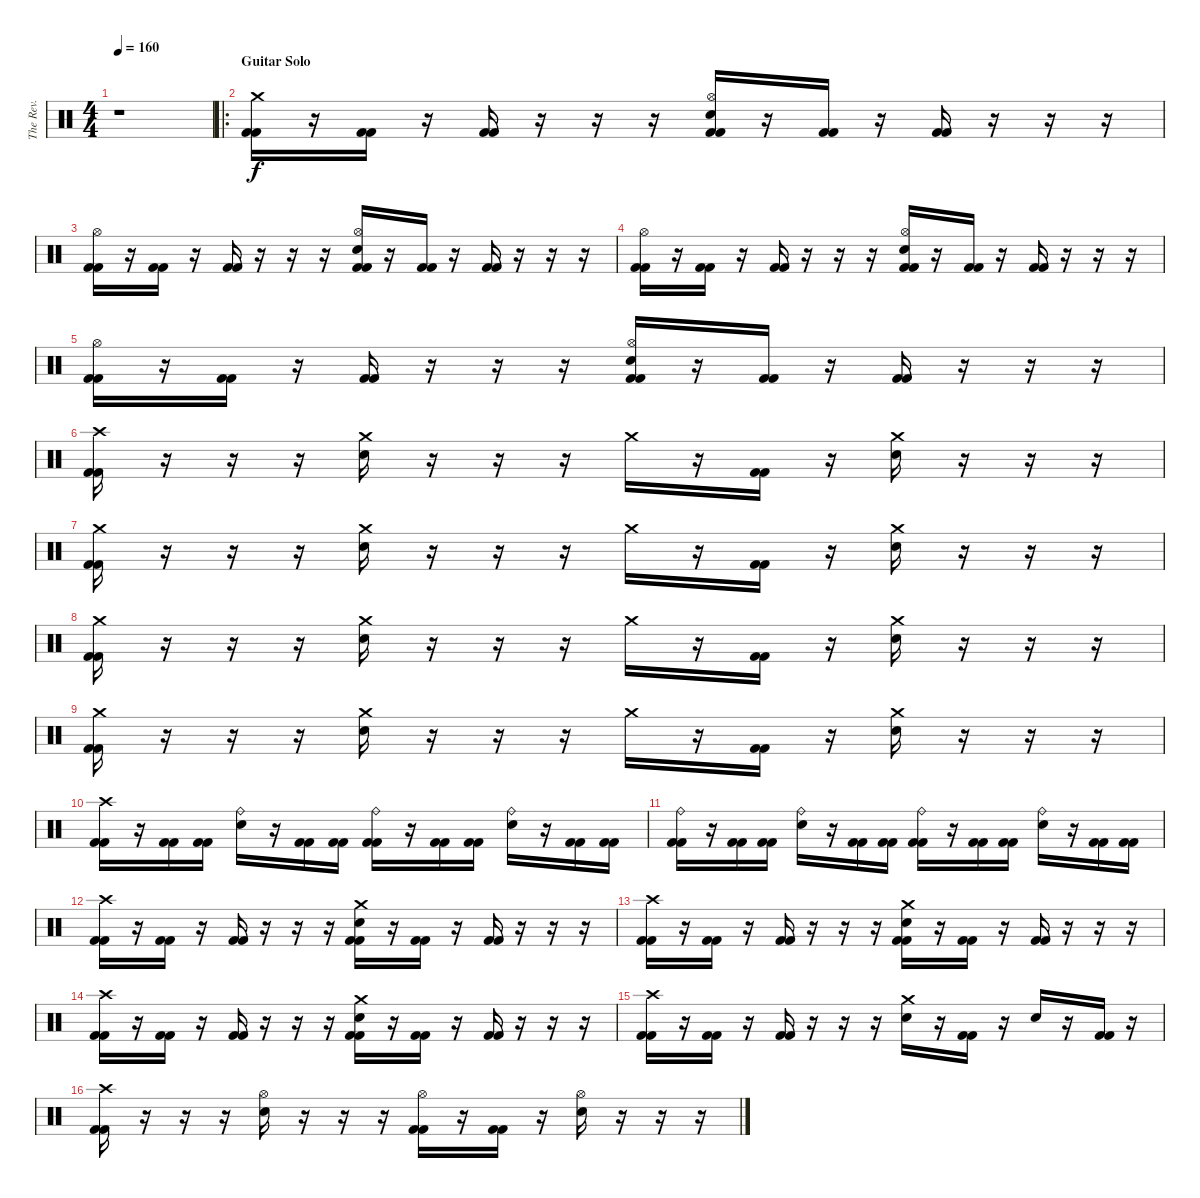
\track ("The Rev." "The Rev.") {instrument percussion}
\staff {score}
\articulation defaults
\ts (4 4)
\tempo 160
\clef neutral
\ks c
r.1{dy f} |
\ro
\section ("" "Guitar Solo")
("Crash medium (hit)" "Kick (hit) 2" "Kick (hit) 2").16 r.16 ("Kick (hit) 2" "Kick (hit) 2").16 r.16 ("Kick (hit) 2" "Kick (hit) 2").16 r.16 r.16 r.16 ("Hi-Hat (open)" "Electric Snare (hit)" "Kick (hit) 2" "Kick (hit) 2").16 r.16 ("Kick (hit) 2" "Kick (hit) 2").16 r.16 ("Kick (hit) 2" "Kick (hit) 2").16 r.16 r.16 r.16 |
("Hi-Hat (open)" "Kick (hit) 2" "Kick (hit) 2").16 r.16 ("Kick (hit) 2" "Kick (hit) 2").16 r.16 ("Kick (hit) 2" "Kick (hit) 2").16 r.16 r.16 r.16 ("Hi-Hat (open)" "Electric Snare (hit)" "Kick (hit) 2" "Kick (hit) 2").16 r.16 ("Kick (hit) 2" "Kick (hit) 2").16 r.16 ("Kick (hit) 2" "Kick (hit) 2").16 r.16 r.16 r.16 |
("Hi-Hat (open)" "Kick (hit) 2" "Kick (hit) 2").16 r.16 ("Kick (hit) 2" "Kick (hit) 2").16 r.16 ("Kick (hit) 2" "Kick (hit) 2").16 r.16 r.16 r.16 ("Hi-Hat (open)" "Electric Snare (hit)" "Kick (hit) 2" "Kick (hit) 2").16 r.16 ("Kick (hit) 2" "Kick (hit) 2").16 r.16 ("Kick (hit) 2" "Kick (hit) 2").16 r.16 r.16 r.16 |
("Hi-Hat (open)" "Kick (hit) 2" "Kick (hit) 2").16 r.16 ("Kick (hit) 2" "Kick (hit) 2").16 r.16 ("Kick (hit) 2" "Kick (hit) 2").16 r.16 r.16 r.16 ("Hi-Hat (open)" "Electric Snare (hit)" "Kick (hit) 2" "Kick (hit) 2").16 r.16 ("Kick (hit) 2" "Kick (hit) 2").16 r.16 ("Kick (hit) 2" "Kick (hit) 2").16 r.16 r.16 r.16 |
("Crash high (hit)" "Kick (hit) 2" "Kick (hit) 2").16 r.16 r.16 r.16 ("Crash medium (hit)" "Electric Snare (hit)").16 r.16 r.16 r.16 "Crash medium (hit)".16 r.16 ("Kick (hit) 2" "Kick (hit) 2").16 r.16 ("Crash medium (hit)" "Electric Snare (hit)").16 r.16 r.16 r.16 |
("Crash medium (hit)" "Kick (hit) 2" "Kick (hit) 2").16 r.16 r.16 r.16 ("Crash medium (hit)" "Electric Snare (hit)").16 r.16 r.16 r.16 "Crash medium (hit)".16 r.16 ("Kick (hit) 2" "Kick (hit) 2").16 r.16 ("Crash medium (hit)" "Electric Snare (hit)").16 r.16 r.16 r.16 |
("Crash medium (hit)" "Kick (hit) 2" "Kick (hit) 2").16 r.16 r.16 r.16 ("Crash medium (hit)" "Electric Snare (hit)").16 r.16 r.16 r.16 "Crash medium (hit)".16 r.16 ("Kick (hit) 2" "Kick (hit) 2").16 r.16 ("Crash medium (hit)" "Electric Snare (hit)").16 r.16 r.16 r.16 |
("Crash medium (hit)" "Kick (hit) 2" "Kick (hit) 2").16 r.16 r.16 r.16 ("Crash medium (hit)" "Electric Snare (hit)").16 r.16 r.16 r.16 "Crash medium (hit)".16 r.16 ("Kick (hit) 2" "Kick (hit) 2").16 r.16 ("Crash medium (hit)" "Electric Snare (hit)").16 r.16 r.16 r.16 |
("Crash high (hit)" "Kick (hit) 2" "Kick (hit) 2").16 r.16 ("Kick (hit) 2" "Kick (hit) 2").16 ("Kick (hit) 2" "Kick (hit) 2").16 ("Ride (bell)" "Electric Snare (hit)").16 r.16 ("Kick (hit) 2" "Kick (hit) 2").16 ("Kick (hit) 2" "Kick (hit) 2").16 ("Ride (bell)" "Kick (hit) 2" "Kick (hit) 2").16 r.16 ("Kick (hit) 2" "Kick (hit) 2").16 ("Kick (hit) 2" "Kick (hit) 2").16 ("Ride (bell)" "Electric Snare (hit)").16 r.16 ("Kick (hit) 2" "Kick (hit) 2").16 ("Kick (hit) 2" "Kick (hit) 2").16 |
("Ride (bell)" "Kick (hit) 2" "Kick (hit) 2").16 r.16 ("Kick (hit) 2" "Kick (hit) 2").16 ("Kick (hit) 2" "Kick (hit) 2").16 ("Ride (bell)" "Electric Snare (hit)").16 r.16 ("Kick (hit) 2" "Kick (hit) 2").16 ("Kick (hit) 2" "Kick (hit) 2").16 ("Ride (bell)" "Kick (hit) 2" "Kick (hit) 2").16 r.16 ("Kick (hit) 2" "Kick (hit) 2").16 ("Kick (hit) 2" "Kick (hit) 2").16 ("Ride (bell)" "Electric Snare (hit)").16 r.16 ("Kick (hit) 2" "Kick (hit) 2").16 ("Kick (hit) 2" "Kick (hit) 2").16 |
("Crash high (hit)" "Kick (hit) 2" "Kick (hit) 2").16 r.16 ("Kick (hit) 2" "Kick (hit) 2").16 r.16 ("Kick (hit) 2" "Kick (hit) 2").16 r.16 r.16 r.16 ("Crash medium (hit)" "Electric Snare (hit)" "Kick (hit) 2" "Kick (hit) 2").16 r.16 ("Kick (hit) 2" "Kick (hit) 2").16 r.16 ("Kick (hit) 2" "Kick (hit) 2").16 r.16 r.16 r.16 |
("Crash high (hit)" "Kick (hit) 2" "Kick (hit) 2").16 r.16 ("Kick (hit) 2" "Kick (hit) 2").16 r.16 ("Kick (hit) 2" "Kick (hit) 2").16 r.16 r.16 r.16 ("Crash medium (hit)" "Electric Snare (hit)" "Kick (hit) 2" "Kick (hit) 2").16 r.16 ("Kick (hit) 2" "Kick (hit) 2").16 r.16 ("Kick (hit) 2" "Kick (hit) 2").16 r.16 r.16 r.16 |
("Crash high (hit)" "Kick (hit) 2" "Kick (hit) 2").16 r.16 ("Kick (hit) 2" "Kick (hit) 2").16 r.16 ("Kick (hit) 2" "Kick (hit) 2").16 r.16 r.16 r.16 ("Crash medium (hit)" "Electric Snare (hit)" "Kick (hit) 2" "Kick (hit) 2").16 r.16 ("Kick (hit) 2" "Kick (hit) 2").16 r.16 ("Kick (hit) 2" "Kick (hit) 2").16 r.16 r.16 r.16 |
("Crash high (hit)" "Kick (hit) 2" "Kick (hit) 2").16 r.16 ("Kick (hit) 2" "Kick (hit) 2").16 r.16 ("Kick (hit) 2" "Kick (hit) 2").16 r.16 r.16 r.16 ("Crash medium (hit)" "Electric Snare (hit)").16 r.16 ("Kick (hit) 2" "Kick (hit) 2").16 r.16 "Electric Snare (hit)".16 r.16 ("Kick (hit) 2" "Kick (hit) 2").16 r.16 |
("Crash high (hit)" "Kick (hit) 2" "Kick (hit) 2").16 r.16 r.16 r.16 ("Hi-Hat (open)" "Electric Snare (hit)").16 r.16 r.16 r.16 ("Hi-Hat (open)" "Kick (hit) 2" "Kick (hit) 2").16 r.16 ("Kick (hit) 2" "Kick (hit) 2").16 r.16 ("Hi-Hat (open)" "Electric Snare (hit)").16 r.16 r.16 r.16
